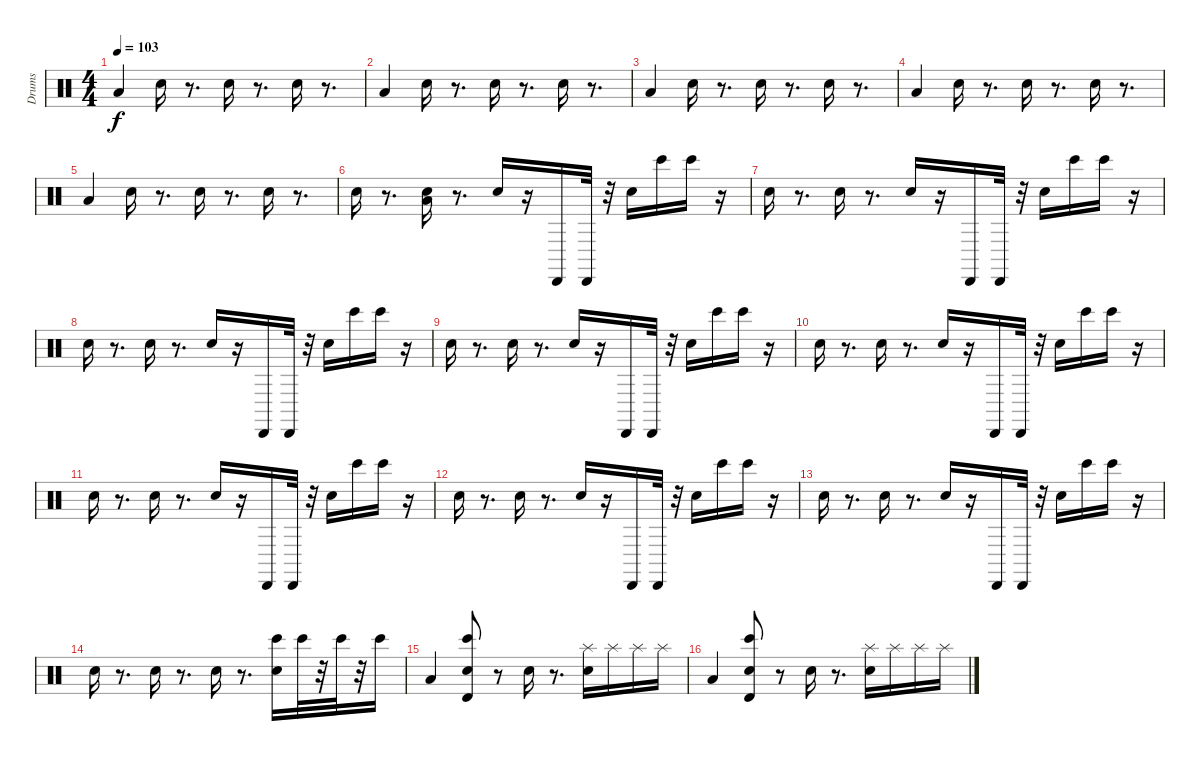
\track ("Drums" "Drums") {instrument percussion}
\staff {score}
\articulation defaults
\ts (4 4)
\tempo 103
\clef neutral
\ks c "Low Tom (hit)".4{dy f} "Electric Snare (hit)".16
r.8{d} "Electric Snare (hit)".16 r.8{d} "Electric Snare (hit)".16 r.8{d} |
"Low Tom (hit)".4 "Electric Snare (hit)".16 r.8{d} "Electric Snare (hit)".16 r.8{d} "Electric Snare (hit)".16 r.8{d} |
"Low Tom (hit)".4 "Electric Snare (hit)".16 r.8{d} "Electric Snare (hit)".16 r.8{d} "Electric Snare (hit)".16 r.8{d} |
"Low Tom (hit)".4 "Electric Snare (hit)".16 r.8{d} "Electric Snare (hit)".16 r.8{d} "Electric Snare (hit)".16 r.8{d} |
"Low Tom (hit)".4 "Electric Snare (hit)".16 r.8{d} "Electric Snare (hit)".16 r.8{d} "Electric Snare (hit)".16 r.8{d} |
"Electric Snare (hit)".16 r.8{d} ("Low Tom (hit)" "Electric Snare (hit)").16 r.8{d} "Electric Snare (hit)".16 r.16 "Cabasa (hit)".16 "Cabasa (hit)".32 r.32 "Electric Snare (hit)".16 "Bongo High (hit)".16 "Bongo High (hit)".16 r.16 |
"Electric Snare (hit)".16 r.8{d} "Electric Snare (hit)".16 r.8{d} "Electric Snare (hit)".16 r.16 "Cabasa (hit)".16 "Cabasa (hit)".32 r.32 "Electric Snare (hit)".16 "Bongo High (hit)".16 "Bongo High (hit)".16 r.16 |
"Electric Snare (hit)".16 r.8{d} "Electric Snare (hit)".16 r.8{d} "Electric Snare (hit)".16 r.16 "Cabasa (hit)".16 "Cabasa (hit)".32 r.32 "Electric Snare (hit)".16 "Bongo High (hit)".16 "Bongo High (hit)".16 r.16 |
"Electric Snare (hit)".16 r.8{d} "Electric Snare (hit)".16 r.8{d} "Electric Snare (hit)".16 r.16 "Cabasa (hit)".16 "Cabasa (hit)".32 r.32 "Electric Snare (hit)".16 "Bongo High (hit)".16 "Bongo High (hit)".16 r.16 |
"Electric Snare (hit)".16 r.8{d} "Electric Snare (hit)".16 r.8{d} "Electric Snare (hit)".16 r.16 "Cabasa (hit)".16 "Cabasa (hit)".32 r.32 "Electric Snare (hit)".16 "Bongo High (hit)".16 "Bongo High (hit)".16 r.16 |
"Electric Snare (hit)".16 r.8{d} "Electric Snare (hit)".16 r.8{d} "Electric Snare (hit)".16 r.16 "Cabasa (hit)".16 "Cabasa (hit)".32 r.32 "Electric Snare (hit)".16 "Bongo High (hit)".16 "Bongo High (hit)".16 r.16 |
"Electric Snare (hit)".16 r.8{d} "Electric Snare (hit)".16 r.8{d} "Electric Snare (hit)".16 r.16 "Cabasa (hit)".16 "Cabasa (hit)".32 r.32 "Electric Snare (hit)".16 "Bongo High (hit)".16 "Bongo High (hit)".16 r.16 |
"Electric Snare (hit)".16 r.8{d} "Electric Snare (hit)".16 r.8{d} "Electric Snare (hit)".16 r.16 "Cabasa (hit)".16 "Cabasa (hit)".32 r.32 "Electric Snare (hit)".16 "Bongo High (hit)".16 "Bongo High (hit)".16 r.16 |
"Electric Snare (hit)".16 r.8{d} "Electric Snare (hit)".16 r.8{d} "Electric Snare (hit)".16 r.8{d} ("Bongo High (hit)" "Electric Snare (hit)").16 "Bongo High (hit)".32 r.32 "Bongo High (hit)".32 r.32 "Bongo High (hit)".16 |
"Low Tom (hit)".4 ("Timbale high (hit)" "Bongo High (hit)" "Electric Snare (hit)").8 r.8 "Electric Snare (hit)".16 r.8{d} ("Splash (hit)" "Electric Snare (hit)").16 "Splash (hit)".16 "Splash (hit)".16 "Splash (hit)".16 |
"Low Tom (hit)".4 ("Timbale high (hit)" "Bongo High (hit)" "Electric Snare (hit)").8 r.8 "Electric Snare (hit)".16 r.8{d} ("Splash (hit)" "Electric Snare (hit)").16 "Splash (hit)".16 "Splash (hit)".16 "Splash (hit)".16
